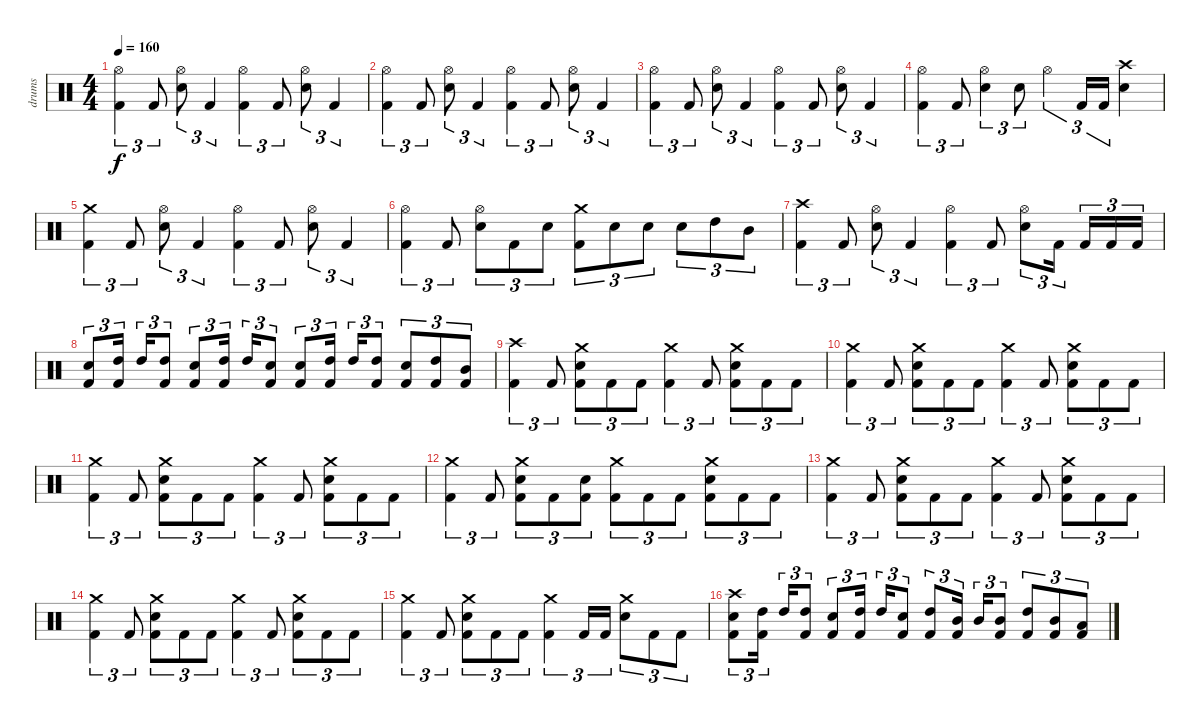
\track ("drums" "drums") {instrument percussion}
\staff {score}
\articulation defaults
\ts (4 4)
\tempo 160
\clef neutral
\ks c
("Hi-Hat (open)" "Kick (hit) 2").4{tu (3 2) dy f} "Kick (hit) 2".8{tu (3 2)} ("Hi-Hat (open)" "Electric Snare (hit)").8{tu (3 2)} "Kick (hit) 2".4{tu (3 2)} ("Hi-Hat (open)" "Kick (hit) 2").4{tu (3 2)} "Kick (hit) 2".8{tu (3 2)} ("Hi-Hat (open)" "Electric Snare (hit)").8{tu (3 2)} "Kick (hit) 2".4{tu (3 2)} |
("Hi-Hat (open)" "Kick (hit) 2").4{tu (3 2)} "Kick (hit) 2".8{tu (3 2)} ("Hi-Hat (open)" "Electric Snare (hit)").8{tu (3 2)} "Kick (hit) 2".4{tu (3 2)} ("Hi-Hat (open)" "Kick (hit) 2").4{tu (3 2)} "Kick (hit) 2".8{tu (3 2)} ("Hi-Hat (open)" "Electric Snare (hit)").8{tu (3 2)} "Kick (hit) 2".4{tu (3 2)} |
("Hi-Hat (open)" "Kick (hit) 2").4{tu (3 2)} "Kick (hit) 2".8{tu (3 2)} ("Hi-Hat (open)" "Electric Snare (hit)").8{tu (3 2)} "Kick (hit) 2".4{tu (3 2)} ("Hi-Hat (open)" "Kick (hit) 2").4{tu (3 2)} "Kick (hit) 2".8{tu (3 2)} ("Hi-Hat (open)" "Electric Snare (hit)").8{tu (3 2)} "Kick (hit) 2".4{tu (3 2)} |
("Hi-Hat (open)" "Kick (hit) 2").4{tu (3 2)} "Kick (hit) 2".8{tu (3 2)} ("Hi-Hat (open)" "Electric Snare (hit)").4{tu (3 2)} "Electric Snare (hit)".8{tu (3 2)} "Hi-Hat (open)".4{tu (3 2)} "Kick (hit) 2".16{tu (3 2)} "Kick (hit) 2".16{tu (3 2)} ("Crash high (hit)" "Electric Snare (hit)").4 |
("Crash medium (hit)" "Kick (hit) 2").4{tu (3 2)} "Kick (hit) 2".8{tu (3 2)} ("Hi-Hat (open)" "Electric Snare (hit)").8{tu (3 2)} "Kick (hit) 2".4{tu (3 2)} ("Hi-Hat (open)" "Kick (hit) 2").4{tu (3 2)} "Kick (hit) 2".8{tu (3 2)} ("Hi-Hat (open)" "Electric Snare (hit)").8{tu (3 2)} "Kick (hit) 2".4{tu (3 2)} |
("Hi-Hat (open)" "Kick (hit) 2").4{tu (3 2)} "Kick (hit) 2".8{tu (3 2)} ("Hi-Hat (open)" "Electric Snare (hit)").8{tu (3 2)} "Kick (hit) 2".8{tu (3 2)} "Electric Snare (hit)".8{tu (3 2)} ("Crash medium (hit)" "Kick (hit) 2").8{tu (3 2)} "Electric Snare (hit)".8{tu (3 2)} "Electric Snare (hit)".8{tu (3 2)} "Electric Snare (hit)".8{tu (3 2)} "High Tom (hit)".8{tu (3 2)} "Mid Tom (hit)".8{tu (3 2)} |
("Crash high (hit)" "Kick (hit) 2").4{tu (3 2)} "Kick (hit) 2".8{tu (3 2)} ("Hi-Hat (open)" "Electric Snare (hit)").8{tu (3 2)} "Kick (hit) 2".4{tu (3 2)} ("Hi-Hat (open)" "Kick (hit) 2").4{tu (3 2)} "Kick (hit) 2".8{tu (3 2)} ("Hi-Hat (open)" "Electric Snare (hit)").8{tu (3 2)} "Kick (hit) 2".16{tu (3 2)} "Kick (hit) 2".16{tu (3 2)} "Kick (hit) 2".16{tu (3 2)} "Kick (hit) 2".16{tu (3 2)} |
("Electric Snare (hit)" "Kick (hit) 2").8{tu (3 2)} ("High Tom (hit)" "Kick (hit) 2").16{tu (3 2)} "High Tom (hit)".16{tu (3 2)} ("High Tom (hit)" "Kick (hit) 2").8{tu (3 2)} ("Electric Snare (hit)" "Kick (hit) 2").8{tu (3 2)} ("High Tom (hit)" "Kick (hit) 2").16{tu (3 2)} "High Tom (hit)".16{tu (3 2)} ("Electric Snare (hit)" "Kick (hit) 2").8{tu (3 2)} ("Electric Snare (hit)" "Kick (hit) 2").8{tu (3 2)} ("High Tom (hit)" "Kick (hit) 2").16{tu (3 2)} "High Tom (hit)".16{tu (3 2)} ("High Tom (hit)" "Kick (hit) 2").8{tu (3 2)} ("Electric Snare (hit)" "Kick (hit) 2").8{tu (3 2)} ("High Tom (hit)" "Kick (hit) 2").8{tu (3 2)} ("Mid Tom (hit)" "Kick (hit) 2").8{tu (3 2)} |
("Crash high (hit)" "Kick (hit) 2").4{tu (3 2)} "Kick (hit) 2".8{tu (3 2)} ("Crash medium (hit)" "Electric Snare (hit)" "Kick (hit) 2").8{tu (3 2)} "Kick (hit) 2".8{tu (3 2)} "Kick (hit) 2".8{tu (3 2)} ("Crash medium (hit)" "Kick (hit) 2").4{tu (3 2)} "Kick (hit) 2".8{tu (3 2)} ("Crash medium (hit)" "Electric Snare (hit)" "Kick (hit) 2").8{tu (3 2)} "Kick (hit) 2".8{tu (3 2)} "Kick (hit) 2".8{tu (3 2)} |
("Crash medium (hit)" "Kick (hit) 2").4{tu (3 2)} "Kick (hit) 2".8{tu (3 2)} ("Crash medium (hit)" "Electric Snare (hit)" "Kick (hit) 2").8{tu (3 2)} "Kick (hit) 2".8{tu (3 2)} "Kick (hit) 2".8{tu (3 2)} ("Crash medium (hit)" "Kick (hit) 2").4{tu (3 2)} "Kick (hit) 2".8{tu (3 2)} ("Crash medium (hit)" "Electric Snare (hit)" "Kick (hit) 2").8{tu (3 2)} "Kick (hit) 2".8{tu (3 2)} "Kick (hit) 2".8{tu (3 2)} |
("Crash medium (hit)" "Kick (hit) 2").4{tu (3 2)} "Kick (hit) 2".8{tu (3 2)} ("Crash medium (hit)" "Electric Snare (hit)" "Kick (hit) 2").8{tu (3 2)} "Kick (hit) 2".8{tu (3 2)} "Kick (hit) 2".8{tu (3 2)} ("Crash medium (hit)" "Kick (hit) 2").4{tu (3 2)} "Kick (hit) 2".8{tu (3 2)} ("Crash medium (hit)" "Electric Snare (hit)" "Kick (hit) 2").8{tu (3 2)} "Kick (hit) 2".8{tu (3 2)} "Kick (hit) 2".8{tu (3 2)} |
("Crash medium (hit)" "Kick (hit) 2").4{tu (3 2)} "Kick (hit) 2".8{tu (3 2)} ("Crash medium (hit)" "Electric Snare (hit)" "Kick (hit) 2").8{tu (3 2)} "Kick (hit) 2".8{tu (3 2)} ("Electric Snare (hit)" "Kick (hit) 2").8{tu (3 2)} ("Crash medium (hit)" "Kick (hit) 2").8{tu (3 2)} "Kick (hit) 2".8{tu (3 2)} "Kick (hit) 2".8{tu (3 2)} ("Crash medium (hit)" "Electric Snare (hit)" "Kick (hit) 2").8{tu (3 2)} "Kick (hit) 2".8{tu (3 2)} "Kick (hit) 2".8{tu (3 2)} |
("Crash medium (hit)" "Kick (hit) 2").4{tu (3 2)} "Kick (hit) 2".8{tu (3 2)} ("Crash medium (hit)" "Electric Snare (hit)" "Kick (hit) 2").8{tu (3 2)} "Kick (hit) 2".8{tu (3 2)} "Kick (hit) 2".8{tu (3 2)} ("Crash medium (hit)" "Kick (hit) 2").4{tu (3 2)} "Kick (hit) 2".8{tu (3 2)} ("Crash medium (hit)" "Electric Snare (hit)" "Kick (hit) 2").8{tu (3 2)} "Kick (hit) 2".8{tu (3 2)} "Kick (hit) 2".8{tu (3 2)} |
("Crash medium (hit)" "Kick (hit) 2").4{tu (3 2)} "Kick (hit) 2".8{tu (3 2)} ("Crash medium (hit)" "Electric Snare (hit)" "Kick (hit) 2").8{tu (3 2)} "Kick (hit) 2".8{tu (3 2)} "Kick (hit) 2".8{tu (3 2)} ("Crash medium (hit)" "Kick (hit) 2").4{tu (3 2)} "Kick (hit) 2".8{tu (3 2)} ("Crash medium (hit)" "Electric Snare (hit)" "Kick (hit) 2").8{tu (3 2)} "Kick (hit) 2".8{tu (3 2)} "Kick (hit) 2".8{tu (3 2)} |
("Crash medium (hit)" "Kick (hit) 2").4{tu (3 2)} "Kick (hit) 2".8{tu (3 2)} ("Crash medium (hit)" "Electric Snare (hit)" "Kick (hit) 2").8{tu (3 2)} "Kick (hit) 2".8{tu (3 2)} "Kick (hit) 2".8{tu (3 2)} ("Crash medium (hit)" "Kick (hit) 2").4{tu (3 2)} "Kick (hit) 2".16{tu (3 2)} "Kick (hit) 2".16{tu (3 2)} ("Crash medium (hit)" "Electric Snare (hit)").8{tu (3 2)} "Kick (hit) 2".8{tu (3 2)} "Kick (hit) 2".8{tu (3 2)} |
("Crash high (hit)" "Electric Snare (hit)" "Kick (hit) 2").8{tu (3 2)} ("High Tom (hit)" "Kick (hit) 2").16{tu (3 2)} "High Tom (hit)".16{tu (3 2)} ("High Tom (hit)" "Kick (hit) 2").8{tu (3 2)} ("Electric Snare (hit)" "Kick (hit) 2").8{tu (3 2)} ("High Tom (hit)" "Kick (hit) 2").16{tu (3 2)} "High Tom (hit)".16{tu (3 2)} ("Electric Snare (hit)" "Kick (hit) 2").8{tu (3 2)} ("High Tom (hit)" "Kick (hit) 2").8{tu (3 2)} ("Mid Tom (hit)" "Kick (hit) 2").16{tu (3 2)} "Mid Tom (hit)".16{tu (3 2)} ("Mid Tom (hit)" "Kick (hit) 2").8{tu (3 2)} ("High Tom (hit)" "Kick (hit) 2").8{tu (3 2)} ("Mid Tom (hit)" "Kick (hit) 2").8{tu (3 2)} ("Low Tom (hit)" "Kick (hit) 2").8{tu (3 2)}
